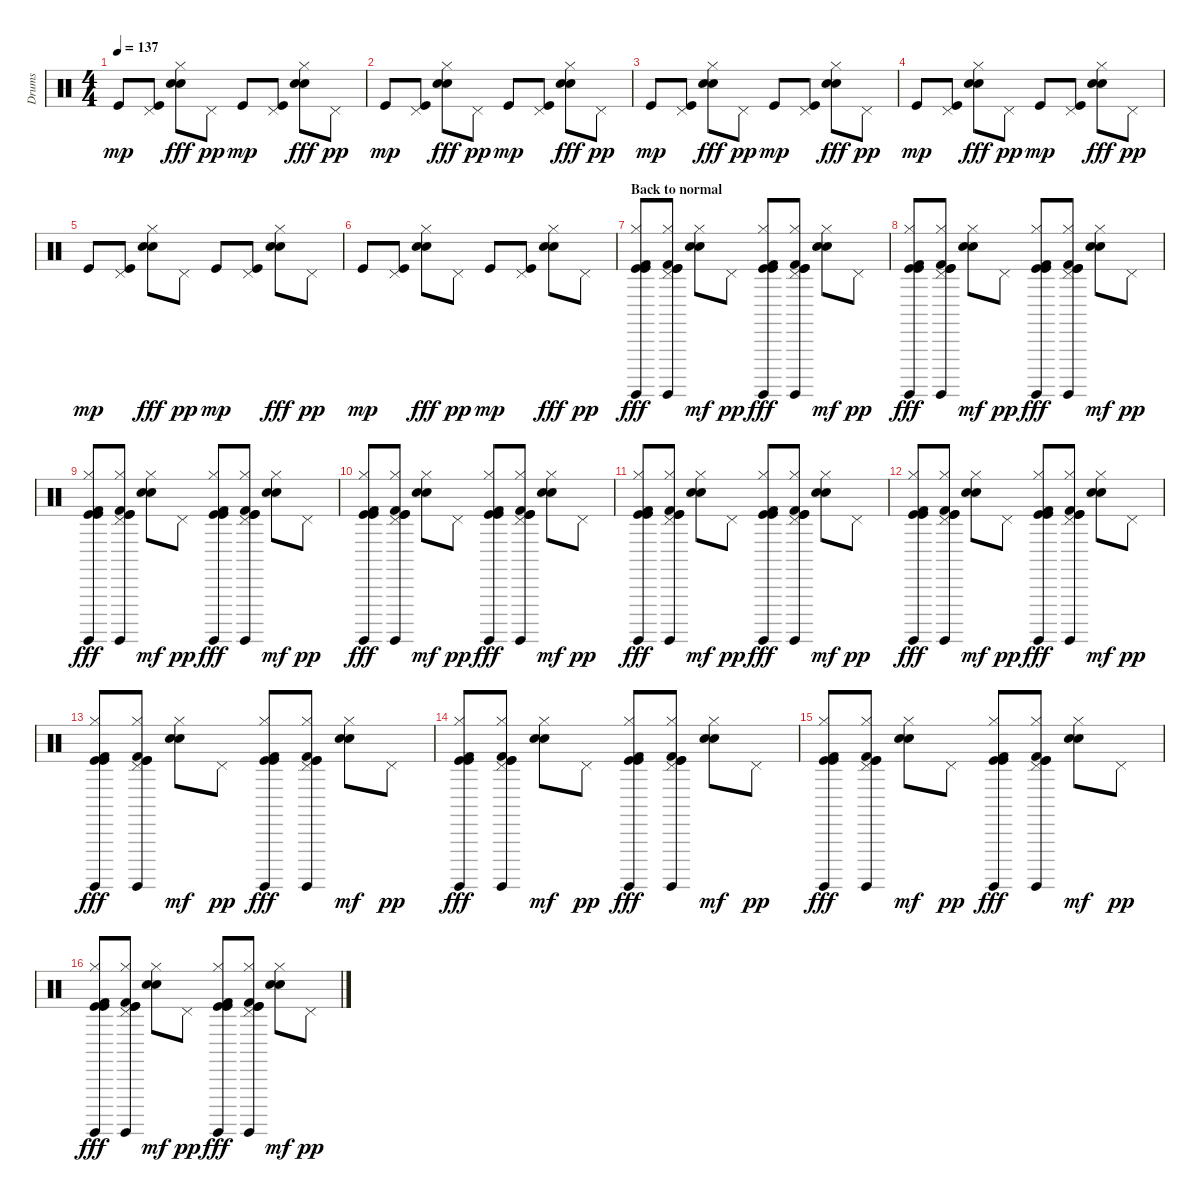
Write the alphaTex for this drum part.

\track ("Drums" "Drums") {instrument percussion}
\staff {score}
\articulation defaults
\ts (4 4)
\tempo 137
\clef neutral
\ks c "Kick (hit)".8{dy mp}
("Pedal Hi-Hat (hit)" "Kick (hit)").8 ("Hi-Hat (closed)" "Hand Clap (hit)" "Snare (hit) 2").8{dy fff} "Pedal Hi-Hat (hit)".8{dy pp} "Kick (hit)".8{dy mp} ("Pedal Hi-Hat (hit)" "Kick (hit)").8 ("Hi-Hat (closed)" "Hand Clap (hit)" "Snare (hit) 2").8{dy fff} "Pedal Hi-Hat (hit)".8{dy pp} |
"Kick (hit)".8{dy mp} ("Pedal Hi-Hat (hit)" "Kick (hit)").8 ("Hi-Hat (closed)" "Hand Clap (hit)" "Snare (hit) 2").8{dy fff} "Pedal Hi-Hat (hit)".8{dy pp} "Kick (hit)".8{dy mp} ("Pedal Hi-Hat (hit)" "Kick (hit)").8 ("Hi-Hat (closed)" "Hand Clap (hit)" "Snare (hit) 2").8{dy fff} "Pedal Hi-Hat (hit)".8{dy pp} |
"Kick (hit)".8{dy mp} ("Pedal Hi-Hat (hit)" "Kick (hit)").8 ("Hi-Hat (closed)" "Hand Clap (hit)" "Snare (hit) 2").8{dy fff} "Pedal Hi-Hat (hit)".8{dy pp} "Kick (hit)".8{dy mp} ("Pedal Hi-Hat (hit)" "Kick (hit)").8 ("Hi-Hat (closed)" "Hand Clap (hit)" "Snare (hit) 2").8{dy fff} "Pedal Hi-Hat (hit)".8{dy pp} |
"Kick (hit)".8{dy mp} ("Pedal Hi-Hat (hit)" "Kick (hit)").8 ("Hi-Hat (closed)" "Hand Clap (hit)" "Snare (hit) 2").8{dy fff} "Pedal Hi-Hat (hit)".8{dy pp} "Kick (hit)".8{dy mp} ("Pedal Hi-Hat (hit)" "Kick (hit)").8 ("Hi-Hat (closed)" "Hand Clap (hit)" "Snare (hit) 2").8{dy fff} "Pedal Hi-Hat (hit)".8{dy pp} |
"Kick (hit)".8{dy mp} ("Pedal Hi-Hat (hit)" "Kick (hit)").8 ("Hi-Hat (closed)" "Hand Clap (hit)" "Snare (hit) 2").8{dy fff} "Pedal Hi-Hat (hit)".8{dy pp} "Kick (hit)".8{dy mp} ("Pedal Hi-Hat (hit)" "Kick (hit)").8 ("Hi-Hat (closed)" "Hand Clap (hit)" "Snare (hit) 2").8{dy fff} "Pedal Hi-Hat (hit)".8{dy pp} |
"Kick (hit)".8{dy mp} ("Pedal Hi-Hat (hit)" "Kick (hit)").8 ("Hi-Hat (closed)" "Hand Clap (hit)" "Snare (hit) 2").8{dy fff} "Pedal Hi-Hat (hit)".8{dy pp} "Kick (hit)".8{dy mp} ("Pedal Hi-Hat (hit)" "Kick (hit)").8 ("Hi-Hat (closed)" "Hand Clap (hit)" "Snare (hit) 2").8{dy fff} "Pedal Hi-Hat (hit)".8{dy pp} |
\section ("" "Back to normal")
("Hi-Hat (closed)" "Kick (hit)" "Surdo (hit)" "Kick (hit) 2" "Kick (hit)").8{dy fff volume 15} ("Pedal Hi-Hat (hit)" "Hi-Hat (closed)" "Kick (hit)" "Surdo (hit)" "Kick (hit) 2" "Kick (hit)").8 ("Hi-Hat (closed)" "Hand Clap (hit)" "Snare (hit) 2").8{dy mf} "Pedal Hi-Hat (hit)".8{dy pp} ("Hi-Hat (closed)" "Kick (hit)" "Surdo (hit)" "Kick (hit) 2" "Kick (hit)").8{dy fff} ("Pedal Hi-Hat (hit)" "Hi-Hat (closed)" "Kick (hit)" "Surdo (hit)" "Kick (hit) 2" "Kick (hit)").8 ("Hi-Hat (closed)" "Hand Clap (hit)" "Snare (hit) 2").8{dy mf} "Pedal Hi-Hat (hit)".8{dy pp} |
("Hi-Hat (closed)" "Kick (hit)" "Surdo (hit)" "Kick (hit) 2" "Kick (hit)").8{dy fff} ("Pedal Hi-Hat (hit)" "Hi-Hat (closed)" "Kick (hit)" "Surdo (hit)" "Kick (hit) 2" "Kick (hit)").8 ("Hi-Hat (closed)" "Hand Clap (hit)" "Snare (hit) 2").8{dy mf} "Pedal Hi-Hat (hit)".8{dy pp} ("Hi-Hat (closed)" "Kick (hit)" "Surdo (hit)" "Kick (hit) 2" "Kick (hit)").8{dy fff} ("Pedal Hi-Hat (hit)" "Hi-Hat (closed)" "Kick (hit)" "Surdo (hit)" "Kick (hit) 2" "Kick (hit)").8 ("Hi-Hat (closed)" "Hand Clap (hit)" "Snare (hit) 2").8{dy mf} "Pedal Hi-Hat (hit)".8{dy pp} |
("Hi-Hat (closed)" "Kick (hit)" "Surdo (hit)" "Kick (hit) 2" "Kick (hit)").8{dy fff} ("Pedal Hi-Hat (hit)" "Hi-Hat (closed)" "Kick (hit)" "Surdo (hit)" "Kick (hit) 2" "Kick (hit)").8 ("Hi-Hat (closed)" "Hand Clap (hit)" "Snare (hit) 2").8{dy mf} "Pedal Hi-Hat (hit)".8{dy pp} ("Hi-Hat (closed)" "Kick (hit)" "Surdo (hit)" "Kick (hit) 2" "Kick (hit)").8{dy fff} ("Pedal Hi-Hat (hit)" "Hi-Hat (closed)" "Kick (hit)" "Surdo (hit)" "Kick (hit) 2" "Kick (hit)").8 ("Hi-Hat (closed)" "Hand Clap (hit)" "Snare (hit) 2").8{dy mf} "Pedal Hi-Hat (hit)".8{dy pp} |
("Hi-Hat (closed)" "Kick (hit)" "Surdo (hit)" "Kick (hit) 2" "Kick (hit)").8{dy fff} ("Pedal Hi-Hat (hit)" "Hi-Hat (closed)" "Kick (hit)" "Surdo (hit)" "Kick (hit) 2" "Kick (hit)").8 ("Hi-Hat (closed)" "Hand Clap (hit)" "Snare (hit) 2").8{dy mf} "Pedal Hi-Hat (hit)".8{dy pp} ("Hi-Hat (closed)" "Kick (hit)" "Surdo (hit)" "Kick (hit) 2" "Kick (hit)").8{dy fff} ("Pedal Hi-Hat (hit)" "Hi-Hat (closed)" "Kick (hit)" "Surdo (hit)" "Kick (hit) 2" "Kick (hit)").8 ("Hi-Hat (closed)" "Hand Clap (hit)" "Snare (hit) 2").8{dy mf} "Pedal Hi-Hat (hit)".8{dy pp} |
("Hi-Hat (closed)" "Kick (hit)" "Surdo (hit)" "Kick (hit) 2" "Kick (hit)").8{dy fff} ("Pedal Hi-Hat (hit)" "Hi-Hat (closed)" "Kick (hit)" "Surdo (hit)" "Kick (hit) 2" "Kick (hit)").8 ("Hi-Hat (closed)" "Hand Clap (hit)" "Snare (hit) 2").8{dy mf} "Pedal Hi-Hat (hit)".8{dy pp} ("Hi-Hat (closed)" "Kick (hit)" "Surdo (hit)" "Kick (hit) 2" "Kick (hit)").8{dy fff} ("Pedal Hi-Hat (hit)" "Hi-Hat (closed)" "Kick (hit)" "Surdo (hit)" "Kick (hit) 2" "Kick (hit)").8 ("Hi-Hat (closed)" "Hand Clap (hit)" "Snare (hit) 2").8{dy mf} "Pedal Hi-Hat (hit)".8{dy pp} |
("Hi-Hat (closed)" "Kick (hit)" "Surdo (hit)" "Kick (hit) 2" "Kick (hit)").8{dy fff} ("Pedal Hi-Hat (hit)" "Hi-Hat (closed)" "Kick (hit)" "Surdo (hit)" "Kick (hit) 2" "Kick (hit)").8 ("Hi-Hat (closed)" "Hand Clap (hit)" "Snare (hit) 2").8{dy mf} "Pedal Hi-Hat (hit)".8{dy pp} ("Hi-Hat (closed)" "Kick (hit)" "Surdo (hit)" "Kick (hit) 2" "Kick (hit)").8{dy fff} ("Pedal Hi-Hat (hit)" "Hi-Hat (closed)" "Kick (hit)" "Surdo (hit)" "Kick (hit) 2" "Kick (hit)").8 ("Hi-Hat (closed)" "Hand Clap (hit)" "Snare (hit) 2").8{dy mf} "Pedal Hi-Hat (hit)".8{dy pp} |
("Hi-Hat (closed)" "Kick (hit)" "Surdo (hit)" "Kick (hit) 2" "Kick (hit)").8{dy fff} ("Pedal Hi-Hat (hit)" "Hi-Hat (closed)" "Kick (hit)" "Surdo (hit)" "Kick (hit) 2" "Kick (hit)").8 ("Hi-Hat (closed)" "Hand Clap (hit)" "Snare (hit) 2").8{dy mf} "Pedal Hi-Hat (hit)".8{dy pp} ("Hi-Hat (closed)" "Kick (hit)" "Surdo (hit)" "Kick (hit) 2" "Kick (hit)").8{dy fff} ("Pedal Hi-Hat (hit)" "Hi-Hat (closed)" "Kick (hit)" "Surdo (hit)" "Kick (hit) 2" "Kick (hit)").8 ("Hi-Hat (closed)" "Hand Clap (hit)" "Snare (hit) 2").8{dy mf} "Pedal Hi-Hat (hit)".8{dy pp} |
("Hi-Hat (closed)" "Kick (hit)" "Surdo (hit)" "Kick (hit) 2" "Kick (hit)").8{dy fff} ("Pedal Hi-Hat (hit)" "Hi-Hat (closed)" "Kick (hit)" "Surdo (hit)" "Kick (hit) 2" "Kick (hit)").8 ("Hi-Hat (closed)" "Hand Clap (hit)" "Snare (hit) 2").8{dy mf} "Pedal Hi-Hat (hit)".8{dy pp} ("Hi-Hat (closed)" "Kick (hit)" "Surdo (hit)" "Kick (hit) 2" "Kick (hit)").8{dy fff} ("Pedal Hi-Hat (hit)" "Hi-Hat (closed)" "Kick (hit)" "Surdo (hit)" "Kick (hit) 2" "Kick (hit)").8 ("Hi-Hat (closed)" "Hand Clap (hit)" "Snare (hit) 2").8{dy mf} "Pedal Hi-Hat (hit)".8{dy pp} |
("Hi-Hat (closed)" "Kick (hit)" "Surdo (hit)" "Kick (hit) 2" "Kick (hit)").8{dy fff volume 15} ("Pedal Hi-Hat (hit)" "Hi-Hat (closed)" "Kick (hit)" "Surdo (hit)" "Kick (hit) 2" "Kick (hit)").8 ("Hi-Hat (closed)" "Hand Clap (hit)" "Snare (hit) 2").8{dy mf} "Pedal Hi-Hat (hit)".8{dy pp} ("Hi-Hat (closed)" "Kick (hit)" "Surdo (hit)" "Kick (hit) 2" "Kick (hit)").8{dy fff} ("Pedal Hi-Hat (hit)" "Hi-Hat (closed)" "Kick (hit)" "Surdo (hit)" "Kick (hit) 2" "Kick (hit)").8 ("Hi-Hat (closed)" "Hand Clap (hit)" "Snare (hit) 2").8{dy mf} "Pedal Hi-Hat (hit)".8{dy pp} |
("Hi-Hat (closed)" "Kick (hit)" "Surdo (hit)" "Kick (hit) 2" "Kick (hit)").8{dy fff} ("Pedal Hi-Hat (hit)" "Hi-Hat (closed)" "Kick (hit)" "Surdo (hit)" "Kick (hit) 2" "Kick (hit)").8 ("Hi-Hat (closed)" "Hand Clap (hit)" "Snare (hit) 2").8{dy mf} "Pedal Hi-Hat (hit)".8{dy pp} ("Hi-Hat (closed)" "Kick (hit)" "Surdo (hit)" "Kick (hit) 2" "Kick (hit)").8{dy fff} ("Pedal Hi-Hat (hit)" "Hi-Hat (closed)" "Kick (hit)" "Surdo (hit)" "Kick (hit) 2" "Kick (hit)").8 ("Hi-Hat (closed)" "Hand Clap (hit)" "Snare (hit) 2").8{dy mf} "Pedal Hi-Hat (hit)".8{dy pp}
